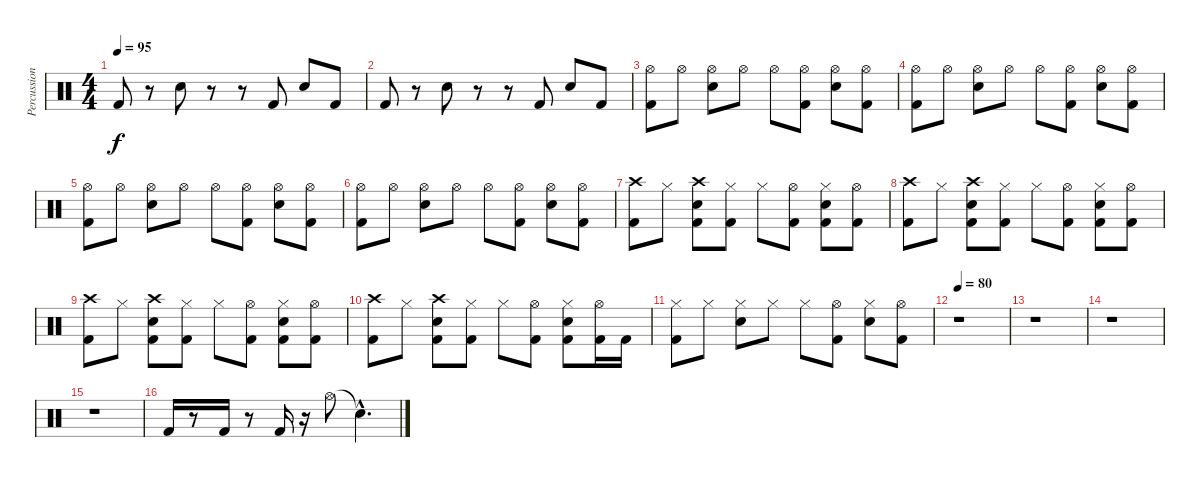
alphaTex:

\track ("Percussion" "Percussion") {instrument percussion}
\staff {score}
\articulation defaults
\ts (4 4)
\tempo 95
\clef neutral
\ks c "Kick (hit) 2".8{dy f}
r.8 "Snare (hit) 2".8 r.8 r.8 "Kick (hit) 2".8 "Snare (hit) 2".8 "Kick (hit) 2".8 |
"Kick (hit) 2".8 r.8 "Snare (hit) 2".8 r.8 r.8 "Kick (hit) 2".8 "Snare (hit) 2".8 "Kick (hit) 2".8 |
("Hi-Hat (open)" "Kick (hit) 2").8 "Hi-Hat (open)".8 ("Hi-Hat (open)" "Snare (hit) 2").8 "Hi-Hat (open)".8 "Hi-Hat (open)".8 ("Hi-Hat (open)" "Kick (hit) 2").8 ("Hi-Hat (open)" "Snare (hit) 2").8 ("Hi-Hat (open)" "Kick (hit) 2").8 |
("Hi-Hat (open)" "Kick (hit) 2").8 "Hi-Hat (open)".8 ("Hi-Hat (open)" "Snare (hit) 2").8 "Hi-Hat (open)".8 "Hi-Hat (open)".8 ("Hi-Hat (open)" "Kick (hit) 2").8 ("Hi-Hat (open)" "Snare (hit) 2").8 ("Hi-Hat (open)" "Kick (hit) 2").8 |
("Hi-Hat (open)" "Kick (hit) 2").8 "Hi-Hat (open)".8 ("Hi-Hat (open)" "Snare (hit) 2").8 "Hi-Hat (open)".8 "Hi-Hat (open)".8 ("Hi-Hat (open)" "Kick (hit) 2").8 ("Hi-Hat (open)" "Snare (hit) 2").8 ("Hi-Hat (open)" "Kick (hit) 2").8 |
("Hi-Hat (open)" "Kick (hit) 2").8 "Hi-Hat (open)".8 ("Hi-Hat (open)" "Snare (hit) 2").8 "Hi-Hat (open)".8 "Hi-Hat (open)".8 ("Hi-Hat (open)" "Kick (hit) 2").8 ("Hi-Hat (open)" "Snare (hit) 2").8 ("Hi-Hat (open)" "Kick (hit) 2").8 |
("Crash high (hit)" "Kick (hit) 2").8{volume 12} "Hi-Hat (closed)".8 ("Crash high (hit)" "Snare (hit) 2" "Kick (hit) 2").8 ("Hi-Hat (closed)" "Kick (hit) 2").8 "Hi-Hat (closed)".8 ("Hi-Hat (open)" "Kick (hit) 2").8 ("Hi-Hat (closed)" "Snare (hit) 2" "Kick (hit) 2").8 ("Hi-Hat (open)" "Kick (hit) 2").8 |
("Crash high (hit)" "Kick (hit) 2").8 "Hi-Hat (closed)".8 ("Crash high (hit)" "Snare (hit) 2" "Kick (hit) 2").8 ("Hi-Hat (closed)" "Kick (hit) 2").8 "Hi-Hat (closed)".8 ("Hi-Hat (open)" "Kick (hit) 2").8 ("Hi-Hat (closed)" "Snare (hit) 2" "Kick (hit) 2").8 ("Hi-Hat (open)" "Kick (hit) 2").8 |
("Crash high (hit)" "Kick (hit) 2").8 "Hi-Hat (closed)".8 ("Crash high (hit)" "Snare (hit) 2" "Kick (hit) 2").8 ("Hi-Hat (closed)" "Kick (hit) 2").8 "Hi-Hat (closed)".8 ("Hi-Hat (open)" "Kick (hit) 2").8 ("Hi-Hat (closed)" "Snare (hit) 2" "Kick (hit) 2").8 ("Hi-Hat (open)" "Kick (hit) 2").8 |
("Crash high (hit)" "Kick (hit) 2").8 "Hi-Hat (closed)".8 ("Crash high (hit)" "Snare (hit) 2" "Kick (hit) 2").8 ("Hi-Hat (closed)" "Kick (hit) 2").8 "Hi-Hat (closed)".8 ("Hi-Hat (open)" "Kick (hit) 2").8 ("Hi-Hat (closed)" "Snare (hit) 2" "Kick (hit) 2").8 ("Hi-Hat (open)" "Kick (hit) 2").16 "Kick (hit) 2".16 |
("Hi-Hat (closed)" "Kick (hit) 2").8 "Hi-Hat (closed)".8 ("Hi-Hat (closed)" "Snare (hit) 2").8 "Hi-Hat (closed)".8 "Hi-Hat (closed)".8 ("Hi-Hat (open)" "Kick (hit) 2").8 ("Hi-Hat (closed)" "Snare (hit) 2").8 ("Hi-Hat (open)" "Kick (hit) 2").8 |
\tempo 80
r.1 |
r.1 |
r.1 |
r.1 |
"Kick (hit) 2".16 r.8 "Kick (hit) 2".16 r.8 "Kick (hit) 2".16 r.16 "Hi-Hat (open)".8 "Snare (hit)"{hac t}.4{d}
